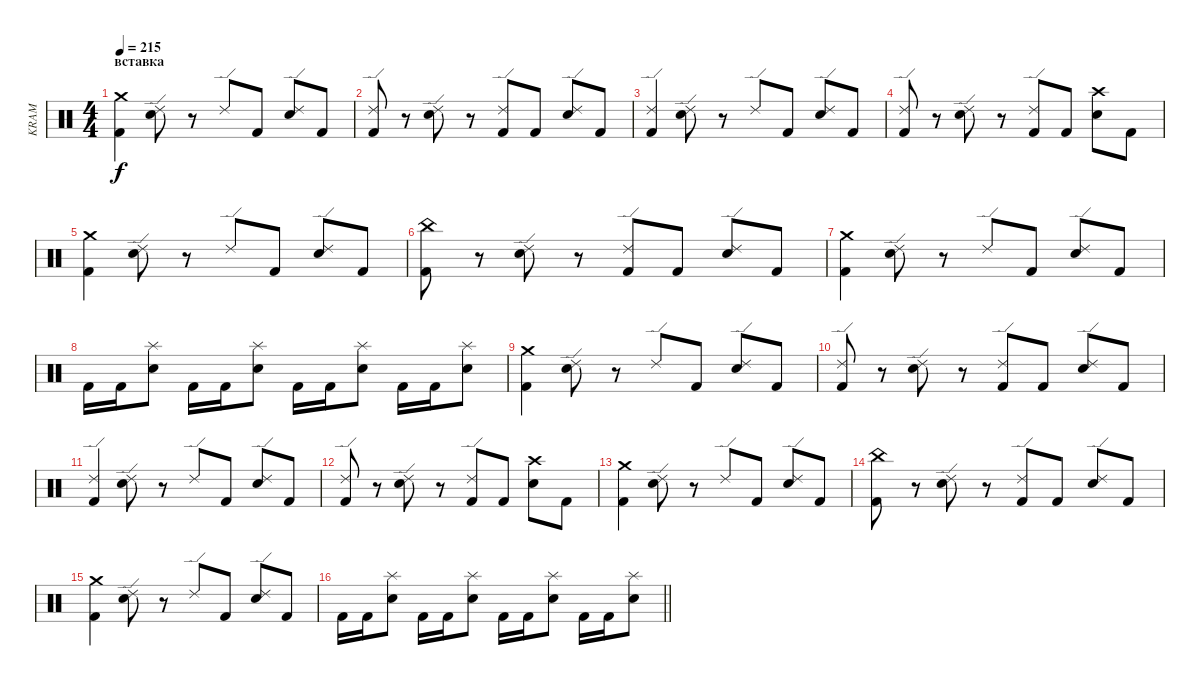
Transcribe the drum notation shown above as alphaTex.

\track ("KRAM" "KRAM") {instrument percussion}
\staff {score}
\articulation defaults
\ts (4 4)
\section ("" "вставка")
\tempo 215
\clef neutral
\ks c
("Kick (hit) 2" "Crash medium (hit)").4{dy f} ("Electric Snare (hit)" "Ride (edge) 2").8 r.8 "Ride (edge) 2".8 "Kick (hit) 2".8 ("Electric Snare (hit)" "Ride (edge) 2").8 "Kick (hit) 2".8 |
("Kick (hit) 2" "Ride (edge) 2").8 r.8 ("Electric Snare (hit)" "Ride (edge) 2").8 r.8 ("Kick (hit) 2" "Ride (edge) 2").8 "Kick (hit) 2".8 ("Electric Snare (hit)" "Ride (edge) 2").8 "Kick (hit) 2".8 |
("Kick (hit) 2" "Ride (edge) 2").4 ("Electric Snare (hit)" "Ride (edge) 2").8 r.8 "Ride (edge) 2".8 "Kick (hit) 2".8 ("Electric Snare (hit)" "Ride (edge) 2").8 "Kick (hit) 2".8 |
("Kick (hit) 2" "Ride (edge) 2").8 r.8 ("Electric Snare (hit)" "Ride (edge) 2").8 r.8 ("Kick (hit) 2" "Ride (edge) 2").8 "Kick (hit) 2".8 ("Electric Snare (hit)" "Crash high (hit)").8 "Kick (hit) 2".8 |
("Kick (hit) 2" "Crash medium (hit)").4 ("Electric Snare (hit)" "Ride (edge) 2").8 r.8 "Ride (edge) 2".8 "Kick (hit) 2".8 ("Electric Snare (hit)" "Ride (edge) 2").8 "Kick (hit) 2".8 |
("Kick (hit) 2" "China (hit)").8 r.8 ("Electric Snare (hit)" "Ride (edge) 2").8 r.8 ("Kick (hit) 2" "Ride (edge) 2").8 "Kick (hit) 2".8 ("Electric Snare (hit)" "Ride (edge) 2").8 "Kick (hit) 2".8 |
("Kick (hit) 2" "Crash medium (hit)").4 ("Electric Snare (hit)" "Ride (edge) 2").8 r.8 "Ride (edge) 2".8 "Kick (hit) 2".8 ("Electric Snare (hit)" "Ride (edge) 2").8 "Kick (hit) 2".8 |
"Kick (hit) 2".16 "Kick (hit) 2".16 ("Electric Snare (hit)" "Splash (hit)").8 "Kick (hit) 2".16 "Kick (hit) 2".16 ("Electric Snare (hit)" "Splash (hit)").8 "Kick (hit) 2".16 "Kick (hit) 2".16 ("Electric Snare (hit)" "Splash (hit)").8 "Kick (hit) 2".16 "Kick (hit) 2".16 ("Electric Snare (hit)" "Splash (hit)").8 |
("Kick (hit) 2" "Crash medium (hit)").4 ("Electric Snare (hit)" "Ride (edge) 2").8 r.8 "Ride (edge) 2".8 "Kick (hit) 2".8 ("Electric Snare (hit)" "Ride (edge) 2").8 "Kick (hit) 2".8 |
("Kick (hit) 2" "Ride (edge) 2").8 r.8 ("Electric Snare (hit)" "Ride (edge) 2").8 r.8 ("Kick (hit) 2" "Ride (edge) 2").8 "Kick (hit) 2".8 ("Electric Snare (hit)" "Ride (edge) 2").8 "Kick (hit) 2".8 |
("Kick (hit) 2" "Ride (edge) 2").4 ("Electric Snare (hit)" "Ride (edge) 2").8 r.8 "Ride (edge) 2".8 "Kick (hit) 2".8 ("Electric Snare (hit)" "Ride (edge) 2").8 "Kick (hit) 2".8 |
("Kick (hit) 2" "Ride (edge) 2").8 r.8 ("Electric Snare (hit)" "Ride (edge) 2").8 r.8 ("Kick (hit) 2" "Ride (edge) 2").8 "Kick (hit) 2".8 ("Electric Snare (hit)" "Crash high (hit)").8 "Kick (hit) 2".8 |
("Kick (hit) 2" "Crash medium (hit)").4 ("Electric Snare (hit)" "Ride (edge) 2").8 r.8 "Ride (edge) 2".8 "Kick (hit) 2".8 ("Electric Snare (hit)" "Ride (edge) 2").8 "Kick (hit) 2".8 |
("Kick (hit) 2" "China (hit)").8 r.8 ("Electric Snare (hit)" "Ride (edge) 2").8 r.8 ("Kick (hit) 2" "Ride (edge) 2").8 "Kick (hit) 2".8 ("Electric Snare (hit)" "Ride (edge) 2").8 "Kick (hit) 2".8 |
("Kick (hit) 2" "Crash medium (hit)").4 ("Electric Snare (hit)" "Ride (edge) 2").8 r.8 "Ride (edge) 2".8 "Kick (hit) 2".8 ("Electric Snare (hit)" "Ride (edge) 2").8 "Kick (hit) 2".8 |
\barLineRight lightlight "Kick (hit) 2".16 "Kick (hit) 2".16
("Electric Snare (hit)" "Splash (hit)").8 "Kick (hit) 2".16 "Kick (hit) 2".16 ("Electric Snare (hit)" "Splash (hit)").8 "Kick (hit) 2".16 "Kick (hit) 2".16 ("Electric Snare (hit)" "Splash (hit)").8 "Kick (hit) 2".16 "Kick (hit) 2".16 ("Electric Snare (hit)" "Splash (hit)").8
